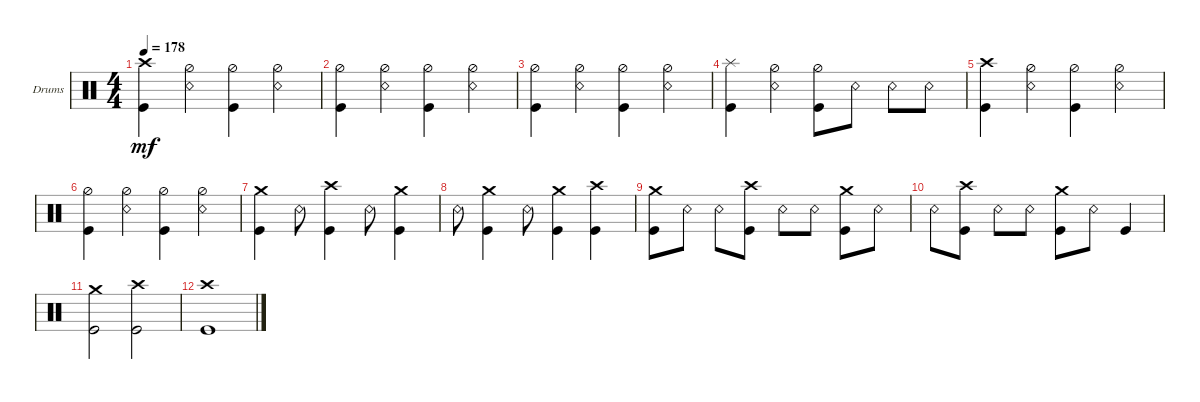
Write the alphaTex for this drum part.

\defaultSystemsLayout 4
\bracketExtendMode groupsimilarinstruments
\firstSystemTrackNameOrientation horizontal
\otherSystemsTrackNameOrientation horizontal
\track ("Drumkit" "Drums") {instrument percussion}
\staff {score}
\articulation defaults
\ts (4 4)
\tempo 178
\clef neutral
\ks c
("Kick (hit)" "Crash high (hit)").4{dy mf} ("Hi-Hat (half)" "Snare (rim shot)").4 ("Kick (hit)" "Hi-Hat (half)").4 ("Hi-Hat (half)" "Snare (rim shot)").4 |
("Kick (hit)" "Hi-Hat (half)").4 ("Hi-Hat (half)" "Snare (rim shot)").4 ("Kick (hit)" "Hi-Hat (half)").4 ("Hi-Hat (half)" "Snare (rim shot)").4 |
("Kick (hit)" "Hi-Hat (half)").4 ("Hi-Hat (half)" "Snare (rim shot)").4 ("Kick (hit)" "Hi-Hat (half)").4 ("Hi-Hat (half)" "Snare (rim shot)").4 |
("Kick (hit)" "Splash (hit)").4 ("Hi-Hat (half)" "Snare (rim shot)").4 ("Kick (hit)" "Hi-Hat (half)").8 "Snare (rim shot)".8 "Snare (rim shot)".8 "Snare (rim shot)".8 |
("Kick (hit)" "Crash high (hit)").4 ("Hi-Hat (half)" "Snare (rim shot)").4 ("Kick (hit)" "Hi-Hat (half)").4 ("Hi-Hat (half)" "Snare (rim shot)").4 |
("Kick (hit)" "Hi-Hat (half)").4 ("Hi-Hat (half)" "Snare (rim shot)").4 ("Kick (hit)" "Hi-Hat (half)").4 ("Hi-Hat (half)" "Snare (rim shot)").4 |
("Kick (hit)" "Crash medium (hit)").4 "Snare (rim shot)".8 ("Kick (hit)" "Crash high (hit)").4 "Snare (rim shot)".8 ("Kick (hit)" "Crash medium (hit)").4 |
"Snare (rim shot)".8 ("Kick (hit)" "Crash medium (hit)").4 "Snare (rim shot)".8 ("Kick (hit)" "Crash medium (hit)").4 ("Kick (hit)" "Crash high (hit)").4 |
("Kick (hit)" "Crash medium (hit)").8 "Snare (rim shot)".8 "Snare (rim shot)".8 ("Kick (hit)" "Crash high (hit)").8 "Snare (rim shot)".8 "Snare (rim shot)".8 ("Kick (hit)" "Crash medium (hit)").8 "Snare (rim shot)".8 |
"Snare (rim shot)".8 ("Kick (hit)" "Crash high (hit)").8 "Snare (rim shot)".8 "Snare (rim shot)".8 ("Kick (hit)" "Crash medium (hit)").8 "Snare (rim shot)".8 "Kick (hit)".4 |
("Kick (hit)" "Crash medium (hit)").2 ("Crash high (hit)" "Kick (hit)").2 |
("Kick (hit)" "Crash high (hit)").1
